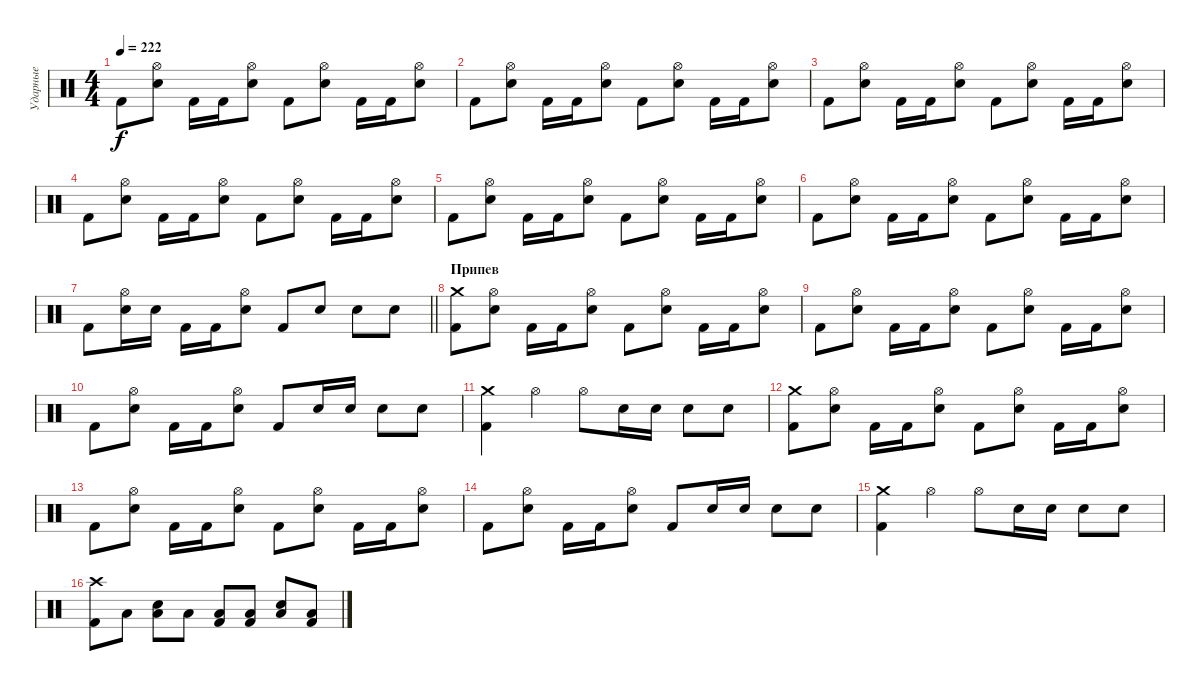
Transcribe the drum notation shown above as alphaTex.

\track ("Ударные" "Ударные") {instrument percussion}
\staff {score}
\articulation defaults
\ts (4 4)
\tempo 222
\clef neutral
\ks c "Kick (hit) 2".8{dy f}
("Electric Snare (hit)" "Hi-Hat (open)").8 "Kick (hit) 2".16 "Kick (hit) 2".16 ("Electric Snare (hit)" "Hi-Hat (open)").8 "Kick (hit) 2".8 ("Electric Snare (hit)" "Hi-Hat (open)").8 "Kick (hit) 2".16 "Kick (hit) 2".16 ("Electric Snare (hit)" "Hi-Hat (open)").8 |
"Kick (hit) 2".8 ("Electric Snare (hit)" "Hi-Hat (open)").8 "Kick (hit) 2".16 "Kick (hit) 2".16 ("Electric Snare (hit)" "Hi-Hat (open)").8 "Kick (hit) 2".8 ("Electric Snare (hit)" "Hi-Hat (open)").8 "Kick (hit) 2".16 "Kick (hit) 2".16 ("Electric Snare (hit)" "Hi-Hat (open)").8 |
"Kick (hit) 2".8 ("Electric Snare (hit)" "Hi-Hat (open)").8 "Kick (hit) 2".16 "Kick (hit) 2".16 ("Electric Snare (hit)" "Hi-Hat (open)").8 "Kick (hit) 2".8 ("Electric Snare (hit)" "Hi-Hat (open)").8 "Kick (hit) 2".16 "Kick (hit) 2".16 ("Electric Snare (hit)" "Hi-Hat (open)").8 |
"Kick (hit) 2".8 ("Electric Snare (hit)" "Hi-Hat (open)").8 "Kick (hit) 2".16 "Kick (hit) 2".16 ("Electric Snare (hit)" "Hi-Hat (open)").8 "Kick (hit) 2".8 ("Electric Snare (hit)" "Hi-Hat (open)").8 "Kick (hit) 2".16 "Kick (hit) 2".16 ("Electric Snare (hit)" "Hi-Hat (open)").8 |
"Kick (hit) 2".8 ("Electric Snare (hit)" "Hi-Hat (open)").8 "Kick (hit) 2".16 "Kick (hit) 2".16 ("Electric Snare (hit)" "Hi-Hat (open)").8 "Kick (hit) 2".8 ("Electric Snare (hit)" "Hi-Hat (open)").8 "Kick (hit) 2".16 "Kick (hit) 2".16 ("Electric Snare (hit)" "Hi-Hat (open)").8 |
"Kick (hit) 2".8 ("Electric Snare (hit)" "Hi-Hat (open)").8 "Kick (hit) 2".16 "Kick (hit) 2".16 ("Electric Snare (hit)" "Hi-Hat (open)").8 "Kick (hit) 2".8 ("Electric Snare (hit)" "Hi-Hat (open)").8 "Kick (hit) 2".16 "Kick (hit) 2".16 ("Electric Snare (hit)" "Hi-Hat (open)").8 |
\barLineRight lightlight "Kick (hit) 2".8
("Electric Snare (hit)" "Hi-Hat (open)").16 "Electric Snare (hit)".16 "Kick (hit) 2".16 "Kick (hit) 2".16 ("Electric Snare (hit)" "Hi-Hat (open)").8 "Kick (hit) 2".8 "Electric Snare (hit)".8 "Electric Snare (hit)".8 "Electric Snare (hit)".8 |
\section ("" "Припев")
("Kick (hit) 2" "Crash medium (hit)").8 ("Electric Snare (hit)" "Hi-Hat (open)").8 "Kick (hit) 2".16 "Kick (hit) 2".16 ("Electric Snare (hit)" "Hi-Hat (open)").8 "Kick (hit) 2".8 ("Electric Snare (hit)" "Hi-Hat (open)").8 "Kick (hit) 2".16 "Kick (hit) 2".16 ("Electric Snare (hit)" "Hi-Hat (open)").8 |
"Kick (hit) 2".8 ("Electric Snare (hit)" "Hi-Hat (open)").8 "Kick (hit) 2".16 "Kick (hit) 2".16 ("Electric Snare (hit)" "Hi-Hat (open)").8 "Kick (hit) 2".8 ("Electric Snare (hit)" "Hi-Hat (open)").8 "Kick (hit) 2".16 "Kick (hit) 2".16 ("Electric Snare (hit)" "Hi-Hat (open)").8 |
"Kick (hit) 2".8 ("Electric Snare (hit)" "Hi-Hat (open)").8 "Kick (hit) 2".16 "Kick (hit) 2".16 ("Electric Snare (hit)" "Hi-Hat (open)").8 "Kick (hit) 2".8 "Electric Snare (hit)".16 "Electric Snare (hit)".16 "Electric Snare (hit)".8 "Electric Snare (hit)".8 |
("Kick (hit) 2" "Crash medium (hit)").4 "Hi-Hat (open)".4 "Hi-Hat (open)".8 "Electric Snare (hit)".16 "Electric Snare (hit)".16 "Electric Snare (hit)".8 "Electric Snare (hit)".8 |
("Kick (hit) 2" "Crash medium (hit)").8 ("Electric Snare (hit)" "Hi-Hat (open)").8 "Kick (hit) 2".16 "Kick (hit) 2".16 ("Electric Snare (hit)" "Hi-Hat (open)").8 "Kick (hit) 2".8 ("Electric Snare (hit)" "Hi-Hat (open)").8 "Kick (hit) 2".16 "Kick (hit) 2".16 ("Electric Snare (hit)" "Hi-Hat (open)").8 |
"Kick (hit) 2".8 ("Electric Snare (hit)" "Hi-Hat (open)").8 "Kick (hit) 2".16 "Kick (hit) 2".16 ("Electric Snare (hit)" "Hi-Hat (open)").8 "Kick (hit) 2".8 ("Electric Snare (hit)" "Hi-Hat (open)").8 "Kick (hit) 2".16 "Kick (hit) 2".16 ("Electric Snare (hit)" "Hi-Hat (open)").8 |
"Kick (hit) 2".8 ("Electric Snare (hit)" "Hi-Hat (open)").8 "Kick (hit) 2".16 "Kick (hit) 2".16 ("Electric Snare (hit)" "Hi-Hat (open)").8 "Kick (hit) 2".8 "Electric Snare (hit)".16 "Electric Snare (hit)".16 "Electric Snare (hit)".8 "Electric Snare (hit)".8 |
("Kick (hit) 2" "Crash medium (hit)").4 "Hi-Hat (open)".4 "Hi-Hat (open)".8 "Electric Snare (hit)".16 "Electric Snare (hit)".16 "Electric Snare (hit)".8 "Electric Snare (hit)".8 |
("Kick (hit) 2" "Crash high (hit)").8 "Low Floor Tom (hit)".8 ("Electric Snare (hit)" "Low Floor Tom (hit)").8 "Low Floor Tom (hit)".8 ("Kick (hit) 2" "Low Floor Tom (hit)").8 ("Kick (hit) 2" "Low Floor Tom (hit)").8 ("Electric Snare (hit)" "Low Floor Tom (hit)").8 ("Kick (hit) 2" "Low Floor Tom (hit)").8
